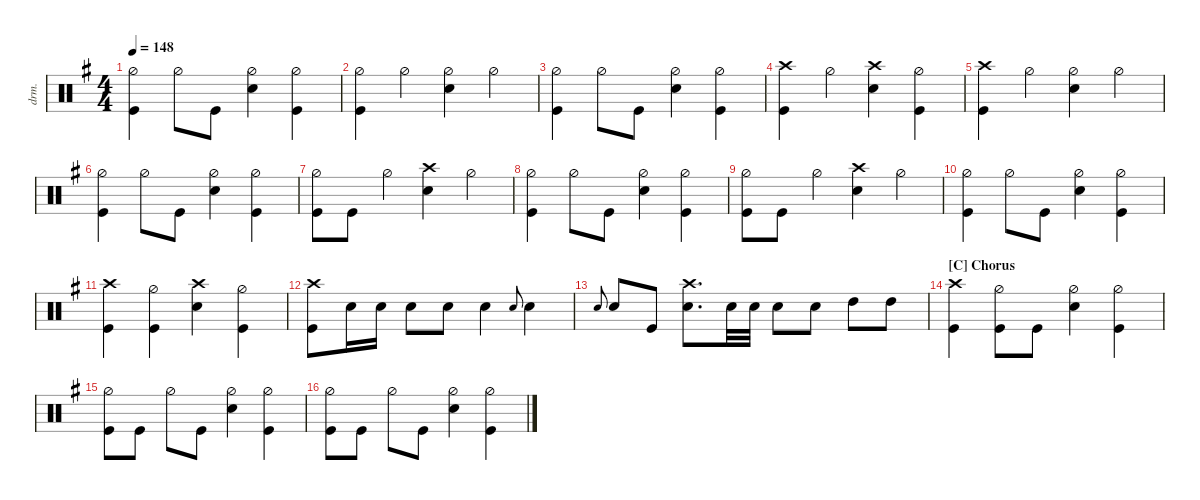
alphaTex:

\defaultSystemsLayout 4
\hideDynamics
\bracketExtendMode nobrackets
\otherSystemsTrackNameOrientation horizontal
\track ("Drums" "drm.") {multiBarRest instrument percussion}
\staff
\articulation defaults
\ts (4 4)
\tempo 148
\clef neutral
\ks eminor
("Kick (hit)"{acc forcenatural} "Hi-Hat (half)"{acc forcenatural}).4{dy mf beam Down} "Hi-Hat (half)"{acc forcenatural}.8{beam Down} "Kick (hit)"{acc forcenatural}.8{beam Down} ("Hi-Hat (half)"{acc forcenatural} "Snare (hit) 2"{acc forcenatural}).4{beam Down} ("Kick (hit)"{acc forcenatural} "Hi-Hat (half)"{acc forcenatural}).4{beam Down} |
("Kick (hit)"{acc forcenatural} "Hi-Hat (half)"{acc forcenatural}).4{beam Down} "Hi-Hat (half)"{acc forcenatural}.4{beam Down} ("Snare (hit) 2"{acc forcenatural} "Hi-Hat (half)"{acc forcenatural}).4{beam Down} "Hi-Hat (half)"{acc forcenatural}.4{beam Down} |
("Kick (hit)"{acc forcenatural} "Hi-Hat (half)"{acc forcenatural}).4{beam Down} "Hi-Hat (half)"{acc forcenatural}.8{beam Down} "Kick (hit)"{acc forcenatural}.8{beam Down} ("Hi-Hat (half)"{acc forcenatural} "Snare (hit) 2"{acc forcenatural}).4{beam Down} ("Kick (hit)"{acc forcenatural} "Hi-Hat (half)"{acc forcenatural}).4{beam Down} |
("Kick (hit)"{acc forcenatural} "Crash high (hit)"{acc forcenatural}).4{beam Down} "Hi-Hat (half)"{acc forcenatural}.4{beam Down} ("Snare (hit) 2"{acc forcenatural} "Crash high (hit)"{acc forcenatural}).4{beam Down} ("Hi-Hat (half)"{acc forcenatural} "Kick (hit)"{acc forcenatural}).4{beam Down} |
("Kick (hit)"{acc forcenatural} "Crash high (hit)"{acc forcenatural}).4{beam Down} "Hi-Hat (half)"{acc forcenatural}.4{beam Down} ("Snare (hit) 2"{acc forcenatural} "Hi-Hat (half)"{acc forcenatural}).4{beam Down} "Hi-Hat (half)"{acc forcenatural}.4{beam Down} |
("Kick (hit)"{acc forcenatural} "Hi-Hat (half)"{acc forcenatural}).4{beam Down} "Hi-Hat (half)"{acc forcenatural}.8{beam Down} "Kick (hit)"{acc forcenatural}.8{beam Down} ("Hi-Hat (half)"{acc forcenatural} "Snare (hit) 2"{acc forcenatural}).4{beam Down} ("Kick (hit)"{acc forcenatural} "Hi-Hat (half)"{acc forcenatural}).4{beam Down} |
("Kick (hit)"{acc forcenatural} "Hi-Hat (half)"{acc forcenatural}).8{beam Down} "Kick (hit)"{acc forcenatural}.8{beam Down} "Hi-Hat (half)"{acc forcenatural}.4{beam Down} ("Snare (hit) 2"{acc forcenatural} "Crash high (hit)"{acc forcenatural}).4{beam Down} "Hi-Hat (half)"{acc forcenatural}.4{beam Down} |
("Kick (hit)"{acc forcenatural} "Hi-Hat (half)"{acc forcenatural}).4{beam Down} "Hi-Hat (half)"{acc forcenatural}.8{beam Down} "Kick (hit)"{acc forcenatural}.8{beam Down} ("Hi-Hat (half)"{acc forcenatural} "Snare (hit) 2"{acc forcenatural}).4{beam Down} ("Kick (hit)"{acc forcenatural} "Hi-Hat (half)"{acc forcenatural}).4{beam Down} |
("Kick (hit)"{acc forcenatural} "Hi-Hat (half)"{acc forcenatural}).8{beam Down} "Kick (hit)"{acc forcenatural}.8{beam Down} "Hi-Hat (half)"{acc forcenatural}.4{beam Down} ("Snare (hit) 2"{acc forcenatural} "Crash high (hit)"{acc forcenatural}).4{beam Down} "Hi-Hat (half)"{acc forcenatural}.4{beam Down} |
("Kick (hit)"{acc forcenatural} "Hi-Hat (half)"{acc forcenatural}).4{beam Down} "Hi-Hat (half)"{acc forcenatural}.8{beam Down} "Kick (hit)"{acc forcenatural}.8{beam Down} ("Hi-Hat (half)"{acc forcenatural} "Snare (hit) 2"{acc forcenatural}).4{beam Down} ("Kick (hit)"{acc forcenatural} "Hi-Hat (half)"{acc forcenatural}).4{beam Down} |
("Kick (hit)"{acc forcenatural} "Crash high (hit)"{acc forcenatural}).4{beam Down} ("Hi-Hat (half)"{acc forcenatural} "Kick (hit)"{acc forcenatural}).4{beam Down} ("Snare (hit) 2"{acc forcenatural} "Crash high (hit)"{acc forcenatural}).4{beam Down} ("Hi-Hat (half)"{acc forcenatural} "Kick (hit)"{acc forcenatural}).4{beam Down} |
("Kick (hit)"{acc forcenatural} "Crash high (hit)"{acc forcenatural}).8{beam Down} "Snare (hit) 2"{acc forcenatural}.16{dy p beam Down} "Snare (hit) 2"{acc forcenatural}.16{dy mp beam Down} "Snare (hit) 2"{acc forcenatural}.8{dy mf beam Down} "Snare (hit) 2"{acc forcenatural}.8{beam Down} "Snare (hit) 2"{acc forcenatural}.4{beam Down} "Snare (hit) 2"{acc forcenatural}.8{gr onbeat beam Up} "Snare (hit) 2"{acc forcenatural}.4{beam Down} |
"Snare (hit) 2"{acc forcenatural}.8{gr onbeat beam Up} "Snare (hit) 2"{acc forcenatural}.8{beam Up} "Kick (hit)"{acc forcenatural}.8{beam Up} ("Snare (hit) 2"{acc forcenatural} "Crash high (hit)"{acc forcenatural}).8{d beam Down} "Snare (hit) 2"{acc forcenatural}.32{dy p beam Down} "Snare (hit) 2"{acc forcenatural}.32{beam Down} "Snare (hit) 2"{acc forcenatural}.8{dy mf beam Down} "Snare (hit) 2"{acc forcenatural}.8{beam Down} "High Tom (hit)"{acc forcenatural}.8{dy ff beam Down} "High Tom (hit)"{acc forcenatural}.8{beam Down} |
\section ("C" "Chorus")
("Kick (hit)"{acc forcenatural} "Crash high (hit)"{acc forcenatural}).4{dy mf beam Down} ("Hi-Hat (half)"{acc forcenatural} "Kick (hit)"{acc forcenatural}).8{beam Down} "Kick (hit)"{acc forcenatural}.8{beam Down} ("Snare (hit) 2"{acc forcenatural} "Hi-Hat (half)"{acc forcenatural}).4{beam Down} ("Kick (hit)"{acc forcenatural} "Hi-Hat (half)"{acc forcenatural}).4{beam Down} |
("Hi-Hat (half)"{acc forcenatural} "Kick (hit)"{acc forcenatural}).8{beam Down} "Kick (hit)"{acc forcenatural}.8{beam Down} "Hi-Hat (half)"{acc forcenatural}.8{beam Down} "Kick (hit)"{acc forcenatural}.8{beam Down} ("Snare (hit) 2"{acc forcenatural} "Hi-Hat (half)"{acc forcenatural}).4{beam Down} ("Kick (hit)"{acc forcenatural} "Hi-Hat (half)"{acc forcenatural}).4{beam Down} |
("Hi-Hat (half)"{acc forcenatural} "Kick (hit)"{acc forcenatural}).8{beam Down} "Kick (hit)"{acc forcenatural}.8{beam Down} "Hi-Hat (half)"{acc forcenatural}.8{beam Down} "Kick (hit)"{acc forcenatural}.8{beam Down} ("Snare (hit) 2"{acc forcenatural} "Hi-Hat (half)"{acc forcenatural}).4{beam Down} ("Kick (hit)"{acc forcenatural} "Hi-Hat (half)"{acc forcenatural}).4{beam Down}
